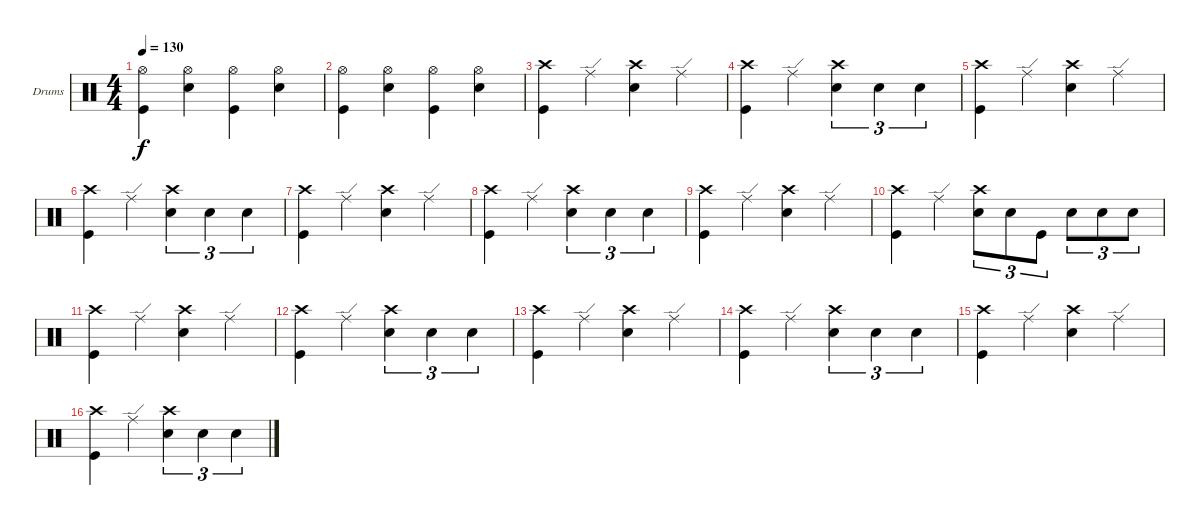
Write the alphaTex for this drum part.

\defaultSystemsLayout 4
\bracketExtendMode groupsimilarinstruments
\firstSystemTrackNameOrientation horizontal
\otherSystemsTrackNameOrientation horizontal
\track ("Drumkit" "Drums") {instrument percussion}
\staff {score}
\articulation defaults
\ts (4 4)
\tempo 130
\clef neutral
\ks c
("Kick (hit)" "Hi-Hat (open)").4{dy f} ("Snare (hit) 2" "Hi-Hat (open)").4 ("Kick (hit)" "Hi-Hat (open)").4 ("Snare (hit) 2" "Hi-Hat (open)").4 |
("Kick (hit)" "Hi-Hat (open)").4 ("Snare (hit) 2" "Hi-Hat (open)").4 ("Kick (hit)" "Hi-Hat (open)").4 ("Snare (hit) 2" "Hi-Hat (open)").4 |
("Kick (hit)" "Crash high (hit)").4 "Ride (edge)".4 ("Crash high (hit)" "Snare (hit) 2").4 "Ride (edge)".4 |
("Kick (hit)" "Crash high (hit)").4 "Ride (edge)".4 ("Snare (hit) 2" "Crash high (hit)").4{tu (3 2)} "Snare (hit) 2".4{tu (3 2)} "Snare (hit) 2".4{tu (3 2)} |
("Kick (hit)" "Crash high (hit)").4 "Ride (edge)".4 ("Crash high (hit)" "Snare (hit) 2").4 "Ride (edge)".4 |
("Kick (hit)" "Crash high (hit)").4 "Ride (edge)".4 ("Snare (hit) 2" "Crash high (hit)").4{tu (3 2)} "Snare (hit) 2".4{tu (3 2)} "Snare (hit) 2".4{tu (3 2)} |
("Kick (hit)" "Crash high (hit)").4 "Ride (edge)".4 ("Crash high (hit)" "Snare (hit) 2").4 "Ride (edge)".4 |
("Kick (hit)" "Crash high (hit)").4 "Ride (edge)".4 ("Snare (hit) 2" "Crash high (hit)").4{tu (3 2)} "Snare (hit) 2".4{tu (3 2)} "Snare (hit) 2".4{tu (3 2)} |
("Kick (hit)" "Crash high (hit)").4 "Ride (edge)".4 ("Crash high (hit)" "Snare (hit) 2").4 "Ride (edge)".4 |
("Kick (hit)" "Crash high (hit)").4 "Ride (edge)".4 ("Snare (hit) 2" "Crash high (hit)").8{tu (3 2)} "Snare (hit) 2".8{tu (3 2)} "Kick (hit)".8{tu (3 2)} "Snare (hit) 2".8{tu (3 2)} "Snare (hit) 2".8{tu (3 2)} "Snare (hit) 2".8{tu (3 2)} |
("Kick (hit)" "Crash high (hit)").4 "Ride (edge)".4 ("Crash high (hit)" "Snare (hit) 2").4 "Ride (edge)".4 |
("Kick (hit)" "Crash high (hit)").4 "Ride (edge)".4 ("Snare (hit) 2" "Crash high (hit)").4{tu (3 2)} "Snare (hit) 2".4{tu (3 2)} "Snare (hit) 2".4{tu (3 2)} |
("Kick (hit)" "Crash high (hit)").4 "Ride (edge)".4 ("Crash high (hit)" "Snare (hit) 2").4 "Ride (edge)".4 |
("Kick (hit)" "Crash high (hit)").4 "Ride (edge)".4 ("Snare (hit) 2" "Crash high (hit)").4{tu (3 2)} "Snare (hit) 2".4{tu (3 2)} "Snare (hit) 2".4{tu (3 2)} |
("Kick (hit)" "Crash high (hit)").4 "Ride (edge)".4 ("Crash high (hit)" "Snare (hit) 2").4 "Ride (edge)".4 |
("Kick (hit)" "Crash high (hit)").4 "Ride (edge)".4 ("Snare (hit) 2" "Crash high (hit)").4{tu (3 2)} "Snare (hit) 2".4{tu (3 2)} "Snare (hit) 2".4{tu (3 2)}
